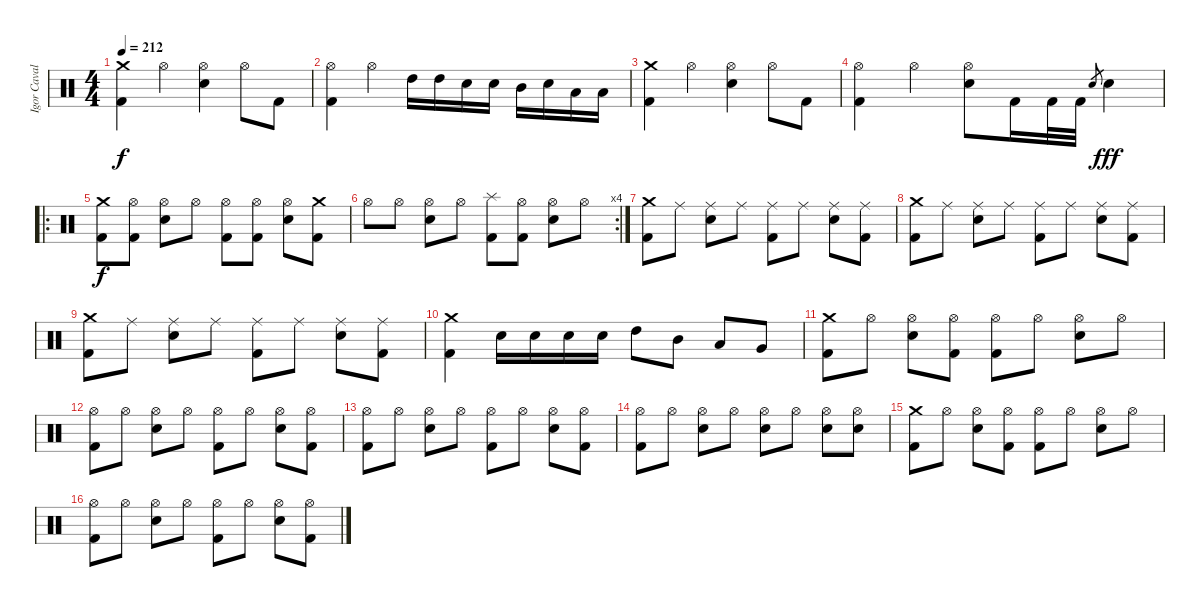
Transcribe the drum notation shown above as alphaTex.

\track ("Igor Cavalera" "Igor Caval") {instrument percussion}
\staff {score}
\articulation defaults
\ts (4 4)
\tempo 212
\clef neutral
\ks c
("Crash medium (hit)" "Kick (hit) 2").4{dy f} "Hi-Hat (open)".4 ("Snare (hit) 2" "Hi-Hat (open)").4 "Hi-Hat (open)".8 "Kick (hit) 2".8 |
("Kick (hit) 2" "Hi-Hat (open)").4 "Hi-Hat (open)".4 "High Tom (hit)".16 "High Tom (hit)".16 "Snare (hit) 2".16 "Snare (hit) 2".16 "Mid Tom (hit)".16 "Snare (hit) 2".16 "Low Tom (hit)".16 "Low Tom (hit)".16 |
("Crash medium (hit)" "Kick (hit) 2").4 "Hi-Hat (open)".4 ("Snare (hit) 2" "Hi-Hat (open)").4 "Hi-Hat (open)".8 "Kick (hit) 2".8 |
("Kick (hit) 2" "Hi-Hat (open)").4 "Hi-Hat (open)".4 ("Snare (hit) 2" "Hi-Hat (open)").8 "Kick (hit) 2".16 "Kick (hit) 2".32 "Kick (hit) 2".32 "Snare (hit) 2".8{gr} "Snare (hit) 2".4{dy fff} |
\ro
("Kick (hit) 2" "Crash medium (hit)").8{dy f} ("Kick (hit) 2" "Hi-Hat (open)").8 ("Snare (hit) 2" "Hi-Hat (open)").8 "Hi-Hat (open)".8 ("Kick (hit) 2" "Hi-Hat (open)").8 ("Kick (hit) 2" "Hi-Hat (open)").8 ("Snare (hit) 2" "Hi-Hat (open)").8 ("Kick (hit) 2" "Crash medium (hit)").8 |
\rc 4 "Hi-Hat (open)".8 "Hi-Hat (open)".8
("Snare (hit) 2" "Hi-Hat (open)").8 "Hi-Hat (open)".8 ("Kick (hit) 2" "Splash (hit)").8 ("Kick (hit) 2" "Hi-Hat (open)").8 ("Snare (hit) 2" "Hi-Hat (open)").8 "Hi-Hat (open)".8 |
("Kick (hit) 2" "Crash medium (hit)").8 "Ride (middle)".8 ("Snare (hit) 2" "Ride (middle)").8 "Ride (middle)".8 ("Kick (hit) 2" "Ride (middle)").8 "Ride (middle)".8 ("Snare (hit) 2" "Ride (middle)").8 ("Kick (hit) 2" "Ride (middle)").8 |
("Kick (hit) 2" "Crash medium (hit)").8 "Ride (middle)".8 ("Snare (hit) 2" "Ride (middle)").8 "Ride (middle)".8 ("Kick (hit) 2" "Ride (middle)").8 "Ride (middle)".8 ("Snare (hit) 2" "Ride (middle)").8 ("Kick (hit) 2" "Ride (middle)").8 |
("Kick (hit) 2" "Crash medium (hit)").8 "Ride (middle)".8 ("Snare (hit) 2" "Ride (middle)").8 "Ride (middle)".8 ("Kick (hit) 2" "Ride (middle)").8 "Ride (middle)".8 ("Snare (hit) 2" "Ride (middle)").8 ("Kick (hit) 2" "Ride (middle)").8 |
("Kick (hit) 2" "Crash medium (hit)").4 "Snare (hit) 2".16 "Snare (hit) 2".16 "Snare (hit) 2".16 "Snare (hit) 2".16 "High Tom (hit)".8 "Mid Tom (hit)".8 "Low Tom (hit)".8 "Very Low Tom (hit)".8 |
("Crash medium (hit)" "Kick (hit) 2").8 "Hi-Hat (open)".8 ("Snare (hit) 2" "Hi-Hat (open)").8 ("Kick (hit) 2" "Hi-Hat (open)").8 ("Kick (hit) 2" "Hi-Hat (open)").8 "Hi-Hat (open)".8 ("Snare (hit) 2" "Hi-Hat (open)").8 "Hi-Hat (open)".8 |
("Kick (hit) 2" "Hi-Hat (open)").8 "Hi-Hat (open)".8 ("Snare (hit) 2" "Hi-Hat (open)").8 "Hi-Hat (open)".8 ("Kick (hit) 2" "Hi-Hat (open)").8 "Hi-Hat (open)".8 ("Snare (hit) 2" "Hi-Hat (open)").8 ("Kick (hit) 2" "Hi-Hat (open)").8 |
("Kick (hit) 2" "Hi-Hat (open)").8 "Hi-Hat (open)".8 ("Snare (hit) 2" "Hi-Hat (open)").8 "Hi-Hat (open)".8 ("Kick (hit) 2" "Hi-Hat (open)").8 "Hi-Hat (open)".8 ("Snare (hit) 2" "Hi-Hat (open)").8 ("Kick (hit) 2" "Hi-Hat (open)").8 |
("Kick (hit) 2" "Hi-Hat (open)").8 "Hi-Hat (open)".8 ("Snare (hit) 2" "Hi-Hat (open)").8 "Hi-Hat (open)".8 ("Snare (hit) 2" "Hi-Hat (open)").8 "Hi-Hat (open)".8 ("Snare (hit) 2" "Hi-Hat (open)").8 ("Snare (hit) 2" "Hi-Hat (open)").8 |
("Crash medium (hit)" "Kick (hit) 2").8 "Hi-Hat (open)".8 ("Snare (hit) 2" "Hi-Hat (open)").8 ("Kick (hit) 2" "Hi-Hat (open)").8 ("Kick (hit) 2" "Hi-Hat (open)").8 "Hi-Hat (open)".8 ("Snare (hit) 2" "Hi-Hat (open)").8 "Hi-Hat (open)".8 |
("Kick (hit) 2" "Hi-Hat (open)").8 "Hi-Hat (open)".8 ("Snare (hit) 2" "Hi-Hat (open)").8 "Hi-Hat (open)".8 ("Kick (hit) 2" "Hi-Hat (open)").8 "Hi-Hat (open)".8 ("Snare (hit) 2" "Hi-Hat (open)").8 ("Kick (hit) 2" "Hi-Hat (open)").8
